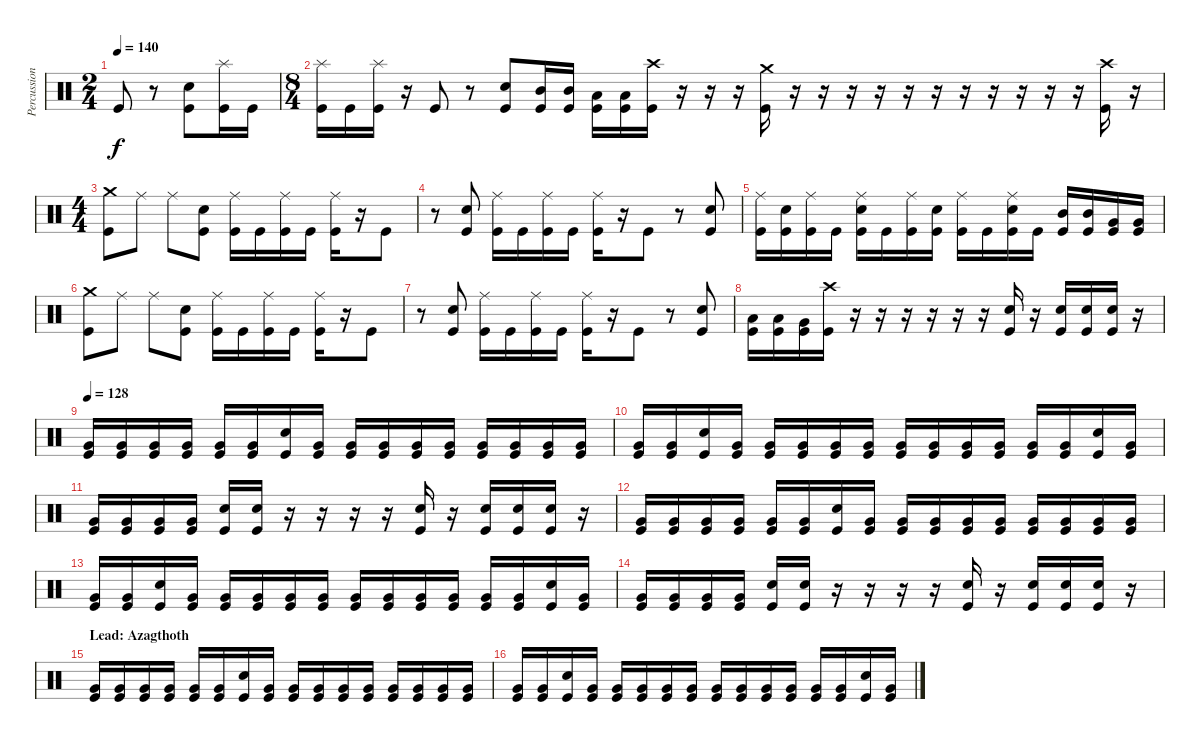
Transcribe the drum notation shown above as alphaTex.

\track ("Percussion" "Percussion") {instrument percussion}
\staff {score}
\articulation defaults
\ts (2 4)
\tempo 140
\clef neutral
\ks c "Kick (hit)".8{dy f}
r.8 ("Electric Snare (hit)" "Kick (hit)").8 ("Splash (hit)" "Kick (hit)").16 "Kick (hit)".16 |
\ts (8 4)
("Splash (hit)" "Kick (hit)").16 "Kick (hit)".16 ("Splash (hit)" "Kick (hit)").16 r.16 "Kick (hit)".8 r.8 ("Electric Snare (hit)" "Kick (hit)").8 ("Mid Tom (hit)" "Kick (hit)").16 ("Mid Tom (hit)" "Kick (hit)").16 ("Low Tom (hit)" "Kick (hit)").16 ("Low Tom (hit)" "Kick (hit)").16 ("Crash high (hit)" "Kick (hit)").16 r.16 r.16 r.16 ("Crash medium (hit)" "Kick (hit)").16 r.16 r.16 r.16 r.16 r.16 r.16 r.16 r.16 r.16 r.16 r.16 ("Crash high (hit)" "Kick (hit)").16 r.16 |
\ts (4 4)
("Crash medium (hit)" "Kick (hit)").8 "Ride (middle)".8 "Ride (middle)".8 ("Electric Snare (hit)" "Kick (hit)").8 ("Ride (middle)" "Kick (hit)").16 "Kick (hit)".16 ("Ride (middle)" "Kick (hit)").16 "Kick (hit)".16 ("Ride (middle)" "Kick (hit)").16 r.16 "Kick (hit)".8 |
r.8 ("Electric Snare (hit)" "Kick (hit)").8 ("Ride (middle)" "Kick (hit)").16 "Kick (hit)".16 ("Ride (middle)" "Kick (hit)").16 "Kick (hit)".16 ("Ride (middle)" "Kick (hit)").16 r.16 "Kick (hit)".8 r.8 ("Electric Snare (hit)" "Kick (hit)").8 |
("Ride (middle)" "Kick (hit)").16 ("Electric Snare (hit)" "Kick (hit)").16 ("Ride (middle)" "Kick (hit)").16 "Kick (hit)".16 ("Ride (middle)" "Electric Snare (hit)" "Kick (hit)").16 "Kick (hit)".16 ("Ride (middle)" "Kick (hit)").16 ("Electric Snare (hit)" "Kick (hit)").16 ("Ride (middle)" "Kick (hit)").16 "Kick (hit)".16 ("Ride (middle)" "Electric Snare (hit)" "Kick (hit)").16 "Kick (hit)".16 ("Mid Tom (hit)" "Kick (hit)").16 ("Mid Tom (hit)" "Kick (hit)").16 ("Very Low Tom (hit)" "Kick (hit)").16 ("Very Low Tom (hit)" "Kick (hit)").16 |
("Crash medium (hit)" "Kick (hit)").8 "Ride (middle)".8 "Ride (middle)".8 ("Electric Snare (hit)" "Kick (hit)").8 ("Ride (middle)" "Kick (hit)").16 "Kick (hit)".16 ("Ride (middle)" "Kick (hit)").16 "Kick (hit)".16 ("Ride (middle)" "Kick (hit)").16 r.16 "Kick (hit)".8 |
r.8 ("Electric Snare (hit)" "Kick (hit)").8 ("Ride (middle)" "Kick (hit)").16 "Kick (hit)".16 ("Ride (middle)" "Kick (hit)").16 "Kick (hit)".16 ("Ride (middle)" "Kick (hit)").16 r.16 "Kick (hit)".8 r.8 ("Electric Snare (hit)" "Kick (hit)").8 |
("Low Tom (hit)" "Kick (hit)").16 ("Low Tom (hit)" "Kick (hit)").16 ("Very Low Tom (hit)" "Kick (hit)").16 ("Crash high (hit)" "Kick (hit)").16 r.16 r.16 r.16 r.16 r.16 r.16 ("Electric Snare (hit)" "Kick (hit)").16 r.16 ("Electric Snare (hit)" "Kick (hit)").16 ("Electric Snare (hit)" "Kick (hit)").16 ("Electric Snare (hit)" "Kick (hit)").16 r.16 |
\tempo 128
("Very Low Tom (hit)" "Kick (hit)").16 ("Very Low Tom (hit)" "Kick (hit)").16 ("Very Low Tom (hit)" "Kick (hit)").16 ("Very Low Tom (hit)" "Kick (hit)").16 ("Very Low Tom (hit)" "Kick (hit)").16 ("Very Low Tom (hit)" "Kick (hit)").16 ("Electric Snare (hit)" "Kick (hit)").16 ("Very Low Tom (hit)" "Kick (hit)").16 ("Very Low Tom (hit)" "Kick (hit)").16 ("Very Low Tom (hit)" "Kick (hit)").16 ("Very Low Tom (hit)" "Kick (hit)").16 ("Very Low Tom (hit)" "Kick (hit)").16 ("Very Low Tom (hit)" "Kick (hit)").16 ("Very Low Tom (hit)" "Kick (hit)").16 ("Very Low Tom (hit)" "Kick (hit)").16 ("Very Low Tom (hit)" "Kick (hit)").16 |
("Very Low Tom (hit)" "Kick (hit)").16 ("Very Low Tom (hit)" "Kick (hit)").16 ("Electric Snare (hit)" "Kick (hit)").16 ("Very Low Tom (hit)" "Kick (hit)").16 ("Very Low Tom (hit)" "Kick (hit)").16 ("Very Low Tom (hit)" "Kick (hit)").16 ("Very Low Tom (hit)" "Kick (hit)").16 ("Very Low Tom (hit)" "Kick (hit)").16 ("Very Low Tom (hit)" "Kick (hit)").16 ("Very Low Tom (hit)" "Kick (hit)").16 ("Very Low Tom (hit)" "Kick (hit)").16 ("Very Low Tom (hit)" "Kick (hit)").16 ("Very Low Tom (hit)" "Kick (hit)").16 ("Very Low Tom (hit)" "Kick (hit)").16 ("Electric Snare (hit)" "Kick (hit)").16 ("Very Low Tom (hit)" "Kick (hit)").16 |
("Very Low Tom (hit)" "Kick (hit)").16 ("Very Low Tom (hit)" "Kick (hit)").16 ("Very Low Tom (hit)" "Kick (hit)").16 ("Very Low Tom (hit)" "Kick (hit)").16 ("Electric Snare (hit)" "Kick (hit)").16 ("Electric Snare (hit)" "Kick (hit)").16 r.16 r.16 r.16 r.16 ("Electric Snare (hit)" "Kick (hit)").16 r.16 ("Electric Snare (hit)" "Kick (hit)").16 ("Electric Snare (hit)" "Kick (hit)").16 ("Electric Snare (hit)" "Kick (hit)").16 r.16 |
("Very Low Tom (hit)" "Kick (hit)").16 ("Very Low Tom (hit)" "Kick (hit)").16 ("Very Low Tom (hit)" "Kick (hit)").16 ("Very Low Tom (hit)" "Kick (hit)").16 ("Very Low Tom (hit)" "Kick (hit)").16 ("Very Low Tom (hit)" "Kick (hit)").16 ("Electric Snare (hit)" "Kick (hit)").16 ("Very Low Tom (hit)" "Kick (hit)").16 ("Very Low Tom (hit)" "Kick (hit)").16 ("Very Low Tom (hit)" "Kick (hit)").16 ("Very Low Tom (hit)" "Kick (hit)").16 ("Very Low Tom (hit)" "Kick (hit)").16 ("Very Low Tom (hit)" "Kick (hit)").16 ("Very Low Tom (hit)" "Kick (hit)").16 ("Very Low Tom (hit)" "Kick (hit)").16 ("Very Low Tom (hit)" "Kick (hit)").16 |
("Very Low Tom (hit)" "Kick (hit)").16 ("Very Low Tom (hit)" "Kick (hit)").16 ("Electric Snare (hit)" "Kick (hit)").16 ("Very Low Tom (hit)" "Kick (hit)").16 ("Very Low Tom (hit)" "Kick (hit)").16 ("Very Low Tom (hit)" "Kick (hit)").16 ("Very Low Tom (hit)" "Kick (hit)").16 ("Very Low Tom (hit)" "Kick (hit)").16 ("Very Low Tom (hit)" "Kick (hit)").16 ("Very Low Tom (hit)" "Kick (hit)").16 ("Very Low Tom (hit)" "Kick (hit)").16 ("Very Low Tom (hit)" "Kick (hit)").16 ("Very Low Tom (hit)" "Kick (hit)").16 ("Very Low Tom (hit)" "Kick (hit)").16 ("Electric Snare (hit)" "Kick (hit)").16 ("Very Low Tom (hit)" "Kick (hit)").16 |
("Very Low Tom (hit)" "Kick (hit)").16 ("Very Low Tom (hit)" "Kick (hit)").16 ("Very Low Tom (hit)" "Kick (hit)").16 ("Very Low Tom (hit)" "Kick (hit)").16 ("Electric Snare (hit)" "Kick (hit)").16 ("Electric Snare (hit)" "Kick (hit)").16 r.16 r.16 r.16 r.16 ("Electric Snare (hit)" "Kick (hit)").16 r.16 ("Electric Snare (hit)" "Kick (hit)").16 ("Electric Snare (hit)" "Kick (hit)").16 ("Electric Snare (hit)" "Kick (hit)").16 r.16 |
\section ("" "Lead: Azagthoth")
("Very Low Tom (hit)" "Kick (hit)").16 ("Very Low Tom (hit)" "Kick (hit)").16 ("Very Low Tom (hit)" "Kick (hit)").16 ("Very Low Tom (hit)" "Kick (hit)").16 ("Very Low Tom (hit)" "Kick (hit)").16 ("Very Low Tom (hit)" "Kick (hit)").16 ("Electric Snare (hit)" "Kick (hit)").16 ("Very Low Tom (hit)" "Kick (hit)").16 ("Very Low Tom (hit)" "Kick (hit)").16 ("Very Low Tom (hit)" "Kick (hit)").16 ("Very Low Tom (hit)" "Kick (hit)").16 ("Very Low Tom (hit)" "Kick (hit)").16 ("Very Low Tom (hit)" "Kick (hit)").16 ("Very Low Tom (hit)" "Kick (hit)").16 ("Very Low Tom (hit)" "Kick (hit)").16 ("Very Low Tom (hit)" "Kick (hit)").16 |
("Very Low Tom (hit)" "Kick (hit)").16 ("Very Low Tom (hit)" "Kick (hit)").16 ("Electric Snare (hit)" "Kick (hit)").16 ("Very Low Tom (hit)" "Kick (hit)").16 ("Very Low Tom (hit)" "Kick (hit)").16 ("Very Low Tom (hit)" "Kick (hit)").16 ("Very Low Tom (hit)" "Kick (hit)").16 ("Very Low Tom (hit)" "Kick (hit)").16 ("Very Low Tom (hit)" "Kick (hit)").16 ("Very Low Tom (hit)" "Kick (hit)").16 ("Very Low Tom (hit)" "Kick (hit)").16 ("Very Low Tom (hit)" "Kick (hit)").16 ("Very Low Tom (hit)" "Kick (hit)").16 ("Very Low Tom (hit)" "Kick (hit)").16 ("Electric Snare (hit)" "Kick (hit)").16 ("Very Low Tom (hit)" "Kick (hit)").16
